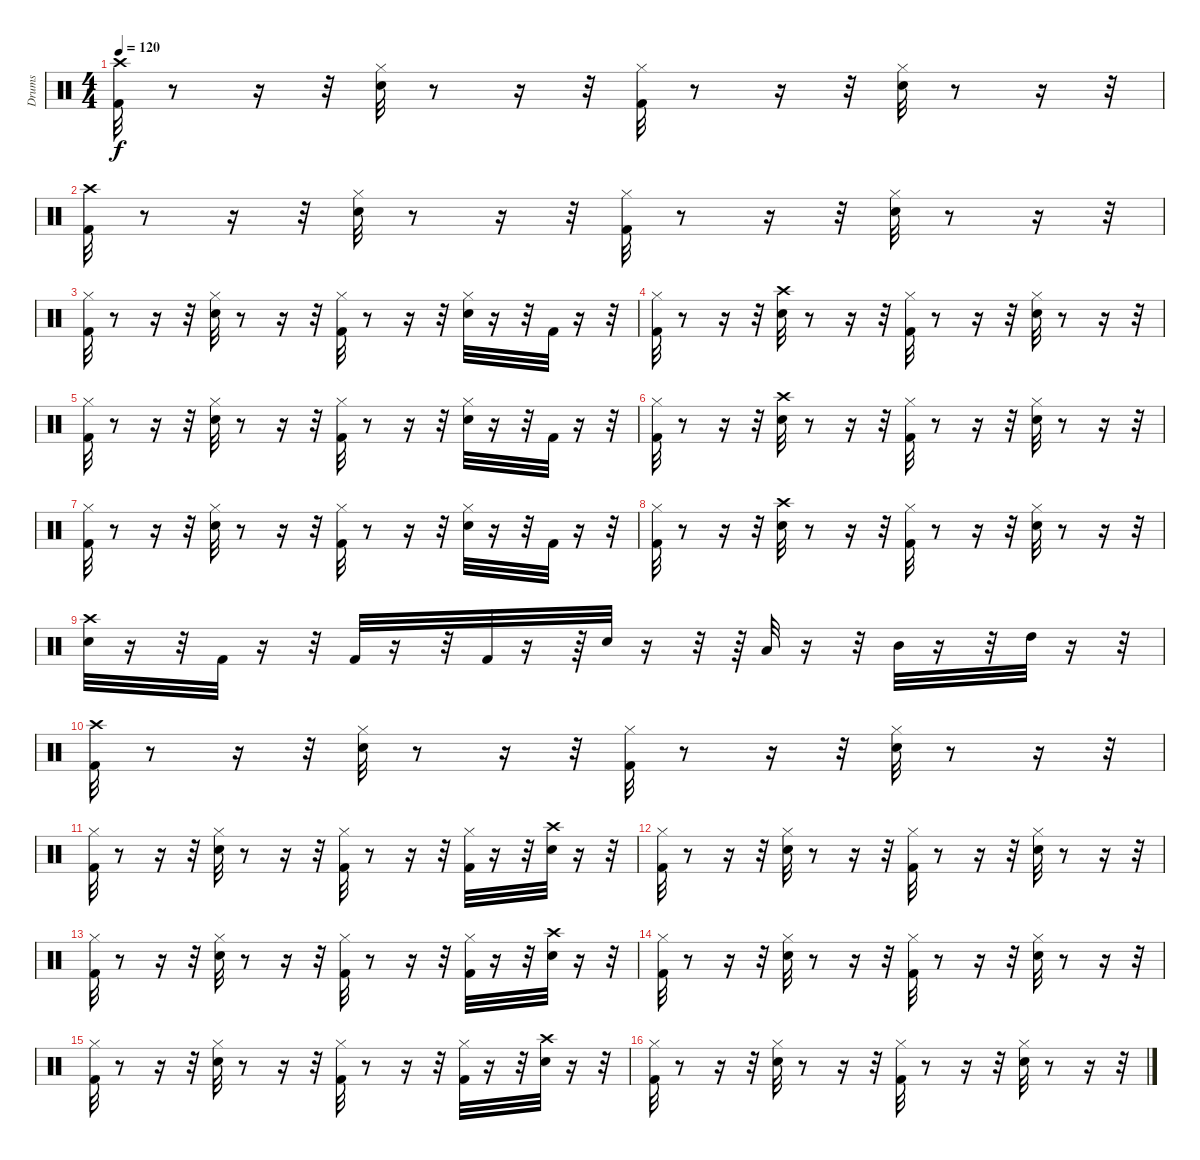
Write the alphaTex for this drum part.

\track ("Drums" "Drums") {instrument percussion}
\staff {score}
\articulation defaults
\ts (4 4)
\tempo 120
\clef neutral
\ks c
("Kick (hit) 2" "Crash high (hit)").32{dy f} r.8 r.16 r.32 ("Hi-Hat (closed)" "Snare (hit) 2").32 r.8 r.16 r.32 ("Hi-Hat (closed)" "Kick (hit) 2").32 r.8 r.16 r.32 ("Snare (hit) 2" "Hi-Hat (closed)").32 r.8 r.16 r.32 |
("Kick (hit) 2" "Crash high (hit)").32 r.8 r.16 r.32 ("Hi-Hat (closed)" "Snare (hit) 2").32 r.8 r.16 r.32 ("Kick (hit) 2" "Hi-Hat (closed)").32 r.8 r.16 r.32 ("Snare (hit) 2" "Hi-Hat (closed)").32 r.8 r.16 r.32 |
("Kick (hit) 2" "Hi-Hat (closed)").32 r.8 r.16 r.32 ("Snare (hit) 2" "Hi-Hat (closed)").32 r.8 r.16 r.32 ("Kick (hit) 2" "Hi-Hat (closed)").32 r.8 r.16 r.32 ("Snare (hit) 2" "Hi-Hat (closed)").32 r.16 r.32 "Kick (hit) 2".32 r.16 r.32 |
("Kick (hit) 2" "Hi-Hat (closed)").32 r.8 r.16 r.32 ("Crash high (hit)" "Snare (hit) 2").32 r.8 r.16 r.32 ("Kick (hit) 2" "Hi-Hat (closed)").32 r.8 r.16 r.32 ("Snare (hit) 2" "Hi-Hat (closed)").32 r.8 r.16 r.32 |
("Kick (hit) 2" "Hi-Hat (closed)").32 r.8 r.16 r.32 ("Snare (hit) 2" "Hi-Hat (closed)").32 r.8 r.16 r.32 ("Kick (hit) 2" "Hi-Hat (closed)").32 r.8 r.16 r.32 ("Snare (hit) 2" "Hi-Hat (closed)").32 r.16 r.32 "Kick (hit) 2".32 r.16 r.32 |
("Kick (hit) 2" "Hi-Hat (closed)").32 r.8 r.16 r.32 ("Snare (hit) 2" "Crash high (hit)").32 r.8 r.16 r.32 ("Kick (hit) 2" "Hi-Hat (closed)").32 r.8 r.16 r.32 ("Snare (hit) 2" "Hi-Hat (closed)").32 r.8 r.16 r.32 |
("Kick (hit) 2" "Hi-Hat (closed)").32 r.8 r.16 r.32 ("Snare (hit) 2" "Hi-Hat (closed)").32 r.8 r.16 r.32 ("Kick (hit) 2" "Hi-Hat (closed)").32 r.8 r.16 r.32 ("Snare (hit) 2" "Hi-Hat (closed)").32 r.16 r.32 "Kick (hit) 2".32 r.16 r.32 |
("Kick (hit) 2" "Hi-Hat (closed)").32 r.8 r.16 r.32 ("Snare (hit) 2" "Crash high (hit)").32 r.8 r.16 r.32 ("Kick (hit) 2" "Hi-Hat (closed)").32 r.8 r.16 r.32 ("Snare (hit) 2" "Hi-Hat (closed)").32 r.8 r.16 r.32 |
("Snare (hit) 2" "Crash high (hit)").32 r.16 r.32 "Kick (hit) 2".32 r.16 r.32 "Kick (hit) 2".32 r.16 r.32 "Kick (hit) 2".32 r.16 r.64 "Snare (hit) 2".32 r.16 r.32 r.64 "Low Tom (hit)".32 r.16 r.32 "Mid Tom (hit)".32 r.16 r.32 "High Tom (hit)".32 r.16 r.32 |
("Crash high (hit)" "Kick (hit) 2").32 r.8 r.16 r.32 ("Hi-Hat (closed)" "Snare (hit) 2").32 r.8 r.16 r.32 ("Hi-Hat (closed)" "Kick (hit) 2").32 r.8 r.16 r.32 ("Hi-Hat (closed)" "Snare (hit) 2").32 r.8 r.16 r.32 |
("Kick (hit) 2" "Hi-Hat (closed)").32 r.8 r.16 r.32 ("Snare (hit) 2" "Hi-Hat (closed)").32 r.8 r.16 r.32 ("Kick (hit) 2" "Hi-Hat (closed)").32 r.8 r.16 r.32 ("Kick (hit) 2" "Hi-Hat (closed)").32 r.16 r.32 ("Snare (hit) 2" "Crash high (hit)").32 r.16 r.32 |
("Hi-Hat (closed)" "Kick (hit) 2").32 r.8 r.16 r.32 ("Hi-Hat (closed)" "Snare (hit) 2").32 r.8 r.16 r.32 ("Hi-Hat (closed)" "Kick (hit) 2").32 r.8 r.16 r.32 ("Hi-Hat (closed)" "Snare (hit) 2").32 r.8 r.16 r.32 |
("Kick (hit) 2" "Hi-Hat (closed)").32 r.8 r.16 r.32 ("Snare (hit) 2" "Hi-Hat (closed)").32 r.8 r.16 r.32 ("Kick (hit) 2" "Hi-Hat (closed)").32 r.8 r.16 r.32 ("Kick (hit) 2" "Hi-Hat (closed)").32 r.16 r.32 ("Snare (hit) 2" "Crash high (hit)").32 r.16 r.32 |
("Hi-Hat (closed)" "Kick (hit) 2").32 r.8 r.16 r.32 ("Hi-Hat (closed)" "Snare (hit) 2").32 r.8 r.16 r.32 ("Hi-Hat (closed)" "Kick (hit) 2").32 r.8 r.16 r.32 ("Hi-Hat (closed)" "Snare (hit) 2").32 r.8 r.16 r.32 |
("Kick (hit) 2" "Hi-Hat (closed)").32 r.8 r.16 r.32 ("Snare (hit) 2" "Hi-Hat (closed)").32 r.8 r.16 r.32 ("Kick (hit) 2" "Hi-Hat (closed)").32 r.8 r.16 r.32 ("Kick (hit) 2" "Hi-Hat (closed)").32 r.16 r.32 ("Snare (hit) 2" "Crash high (hit)").32 r.16 r.32 |
("Hi-Hat (closed)" "Kick (hit) 2").32 r.8 r.16 r.32 ("Hi-Hat (closed)" "Snare (hit) 2").32 r.8 r.16 r.32 ("Hi-Hat (closed)" "Kick (hit) 2").32 r.8 r.16 r.32 ("Hi-Hat (closed)" "Snare (hit) 2").32 r.8 r.16 r.32
